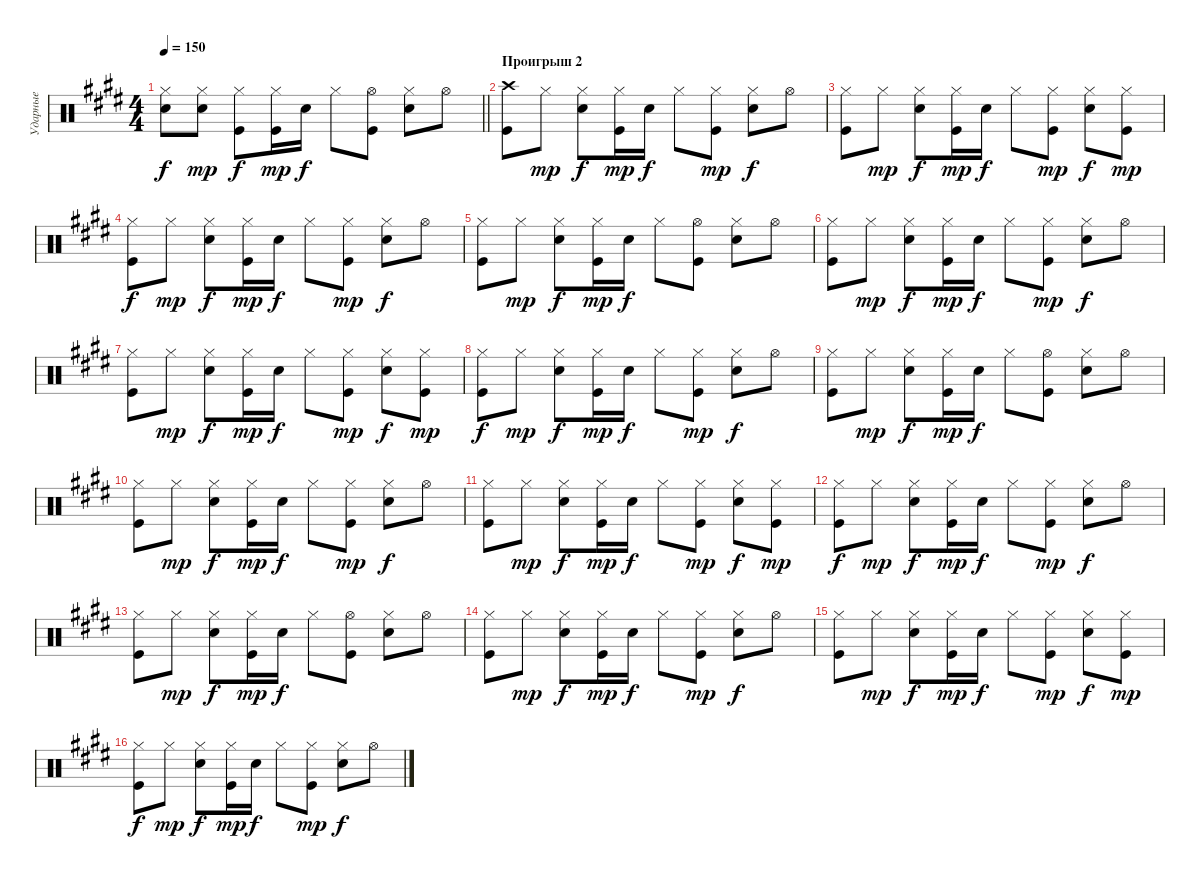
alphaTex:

\track ("Ударные" "Ударные") {instrument percussion}
\staff {score}
\articulation defaults
\ts (4 4)
\tempo 150
\clef neutral
\barLineRight lightlight
\ks c#minor
("Hi-Hat (closed)" "Snare (hit) 2").8{dy f} ("Hi-Hat (closed)" "Snare (hit) 2").8{dy mp} ("Hi-Hat (closed)" "Kick (hit)").8{dy f} ("Hi-Hat (closed)" "Kick (hit)").16{dy mp} "Snare (hit) 2".16{dy f} "Hi-Hat (closed)".8 ("Hi-Hat (open)" "Kick (hit)").8 ("Hi-Hat (closed)" "Snare (hit) 2").8 "Hi-Hat (open)".8 |
\section ("" "Проигрыш 2")
("Crash high (hit)" "Kick (hit)").8 "Hi-Hat (closed)".8{dy mp} ("Hi-Hat (closed)" "Snare (hit) 2").8{dy f} ("Hi-Hat (closed)" "Kick (hit)").16{dy mp} "Snare (hit) 2".16{dy f} "Hi-Hat (closed)".8 ("Hi-Hat (closed)" "Kick (hit)").8{dy mp} ("Hi-Hat (closed)" "Snare (hit) 2").8{dy f} "Hi-Hat (open)".8 |
("Hi-Hat (closed)" "Kick (hit)").8 "Hi-Hat (closed)".8{dy mp} ("Hi-Hat (closed)" "Snare (hit) 2").8{dy f} ("Hi-Hat (closed)" "Kick (hit)").16{dy mp} "Snare (hit) 2".16{dy f} "Hi-Hat (closed)".8 ("Hi-Hat (closed)" "Kick (hit)").8{dy mp} ("Hi-Hat (closed)" "Snare (hit) 2").8{dy f} ("Hi-Hat (closed)" "Kick (hit)").8{dy mp} |
("Hi-Hat (closed)" "Kick (hit)").8{dy f} "Hi-Hat (closed)".8{dy mp} ("Hi-Hat (closed)" "Snare (hit) 2").8{dy f} ("Hi-Hat (closed)" "Kick (hit)").16{dy mp} "Snare (hit) 2".16{dy f} "Hi-Hat (closed)".8 ("Hi-Hat (closed)" "Kick (hit)").8{dy mp} ("Hi-Hat (closed)" "Snare (hit) 2").8{dy f} "Hi-Hat (open)".8 |
("Hi-Hat (closed)" "Kick (hit)").8 "Hi-Hat (closed)".8{dy mp} ("Hi-Hat (closed)" "Snare (hit) 2").8{dy f} ("Hi-Hat (closed)" "Kick (hit)").16{dy mp} "Snare (hit) 2".16{dy f} "Hi-Hat (closed)".8 ("Hi-Hat (open)" "Kick (hit)").8 ("Hi-Hat (closed)" "Snare (hit) 2").8 "Hi-Hat (open)".8 |
("Hi-Hat (closed)" "Kick (hit)").8 "Hi-Hat (closed)".8{dy mp} ("Hi-Hat (closed)" "Snare (hit) 2").8{dy f} ("Hi-Hat (closed)" "Kick (hit)").16{dy mp} "Snare (hit) 2".16{dy f} "Hi-Hat (closed)".8 ("Hi-Hat (closed)" "Kick (hit)").8{dy mp} ("Hi-Hat (closed)" "Snare (hit) 2").8{dy f} "Hi-Hat (open)".8 |
("Hi-Hat (closed)" "Kick (hit)").8 "Hi-Hat (closed)".8{dy mp} ("Hi-Hat (closed)" "Snare (hit) 2").8{dy f} ("Hi-Hat (closed)" "Kick (hit)").16{dy mp} "Snare (hit) 2".16{dy f} "Hi-Hat (closed)".8 ("Hi-Hat (closed)" "Kick (hit)").8{dy mp} ("Hi-Hat (closed)" "Snare (hit) 2").8{dy f} ("Hi-Hat (closed)" "Kick (hit)").8{dy mp} |
("Hi-Hat (closed)" "Kick (hit)").8{dy f} "Hi-Hat (closed)".8{dy mp} ("Hi-Hat (closed)" "Snare (hit) 2").8{dy f} ("Hi-Hat (closed)" "Kick (hit)").16{dy mp} "Snare (hit) 2".16{dy f} "Hi-Hat (closed)".8 ("Hi-Hat (closed)" "Kick (hit)").8{dy mp} ("Hi-Hat (closed)" "Snare (hit) 2").8{dy f} "Hi-Hat (open)".8 |
("Hi-Hat (closed)" "Kick (hit)").8 "Hi-Hat (closed)".8{dy mp} ("Hi-Hat (closed)" "Snare (hit) 2").8{dy f} ("Hi-Hat (closed)" "Kick (hit)").16{dy mp} "Snare (hit) 2".16{dy f} "Hi-Hat (closed)".8 ("Hi-Hat (open)" "Kick (hit)").8 ("Hi-Hat (closed)" "Snare (hit) 2").8 "Hi-Hat (open)".8 |
("Hi-Hat (closed)" "Kick (hit)").8 "Hi-Hat (closed)".8{dy mp} ("Hi-Hat (closed)" "Snare (hit) 2").8{dy f} ("Hi-Hat (closed)" "Kick (hit)").16{dy mp} "Snare (hit) 2".16{dy f} "Hi-Hat (closed)".8 ("Hi-Hat (closed)" "Kick (hit)").8{dy mp} ("Hi-Hat (closed)" "Snare (hit) 2").8{dy f} "Hi-Hat (open)".8 |
("Hi-Hat (closed)" "Kick (hit)").8 "Hi-Hat (closed)".8{dy mp} ("Hi-Hat (closed)" "Snare (hit) 2").8{dy f} ("Hi-Hat (closed)" "Kick (hit)").16{dy mp} "Snare (hit) 2".16{dy f} "Hi-Hat (closed)".8 ("Hi-Hat (closed)" "Kick (hit)").8{dy mp} ("Hi-Hat (closed)" "Snare (hit) 2").8{dy f} ("Hi-Hat (closed)" "Kick (hit)").8{dy mp} |
("Hi-Hat (closed)" "Kick (hit)").8{dy f} "Hi-Hat (closed)".8{dy mp} ("Hi-Hat (closed)" "Snare (hit) 2").8{dy f} ("Hi-Hat (closed)" "Kick (hit)").16{dy mp} "Snare (hit) 2".16{dy f} "Hi-Hat (closed)".8 ("Hi-Hat (closed)" "Kick (hit)").8{dy mp} ("Hi-Hat (closed)" "Snare (hit) 2").8{dy f} "Hi-Hat (open)".8 |
("Hi-Hat (closed)" "Kick (hit)").8 "Hi-Hat (closed)".8{dy mp} ("Hi-Hat (closed)" "Snare (hit) 2").8{dy f} ("Hi-Hat (closed)" "Kick (hit)").16{dy mp} "Snare (hit) 2".16{dy f} "Hi-Hat (closed)".8 ("Hi-Hat (open)" "Kick (hit)").8 ("Hi-Hat (closed)" "Snare (hit) 2").8 "Hi-Hat (open)".8 |
("Hi-Hat (closed)" "Kick (hit)").8 "Hi-Hat (closed)".8{dy mp} ("Hi-Hat (closed)" "Snare (hit) 2").8{dy f} ("Hi-Hat (closed)" "Kick (hit)").16{dy mp} "Snare (hit) 2".16{dy f} "Hi-Hat (closed)".8 ("Hi-Hat (closed)" "Kick (hit)").8{dy mp} ("Hi-Hat (closed)" "Snare (hit) 2").8{dy f} "Hi-Hat (open)".8 |
("Hi-Hat (closed)" "Kick (hit)").8 "Hi-Hat (closed)".8{dy mp} ("Hi-Hat (closed)" "Snare (hit) 2").8{dy f} ("Hi-Hat (closed)" "Kick (hit)").16{dy mp} "Snare (hit) 2".16{dy f} "Hi-Hat (closed)".8 ("Hi-Hat (closed)" "Kick (hit)").8{dy mp} ("Hi-Hat (closed)" "Snare (hit) 2").8{dy f} ("Hi-Hat (closed)" "Kick (hit)").8{dy mp} |
("Hi-Hat (closed)" "Kick (hit)").8{dy f} "Hi-Hat (closed)".8{dy mp} ("Hi-Hat (closed)" "Snare (hit) 2").8{dy f} ("Hi-Hat (closed)" "Kick (hit)").16{dy mp} "Snare (hit) 2".16{dy f} "Hi-Hat (closed)".8 ("Hi-Hat (closed)" "Kick (hit)").8{dy mp} ("Hi-Hat (closed)" "Snare (hit) 2").8{dy f} "Hi-Hat (open)".8
